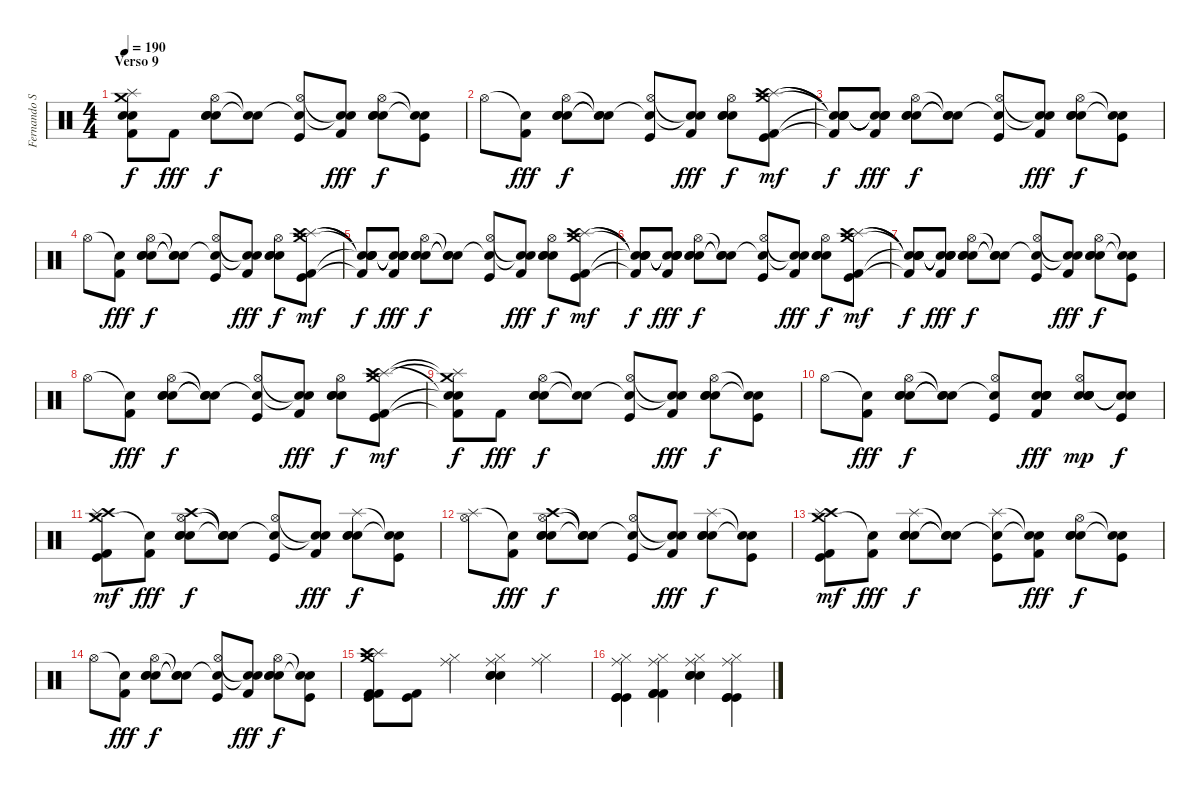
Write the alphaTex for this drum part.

\track ("Fernando Scarcella" "Fernando S") {instrument percussion}
\staff {score}
\articulation defaults
\ts (4 4)
\section ("" "Verso 9")
\tempo 190
\clef neutral
\ks c
("Crash medium (hit)"{t} "Splash (hit)"{t} "Snare (hit)"{t} "Snare (hit)"{t} "Kick (hit) 2"{t}).8{dy f} "Kick (hit) 2".8{dy fff} ("Hi-Hat (open)" "Electric Snare (hit)" "Electric Snare (hit)" "Electric Snare (hit)").8{dy f} ("Snare (hit)"{t} "Snare (hit)"{t}).8 ("Hi-Hat (open)" "Snare (hit)"{t} "Kick (hit)").8 ("Snare (hit)"{t} "Snare (hit)"{t} "Kick (hit) 2").8{dy fff} ("Hi-Hat (open)" "Electric Snare (hit)" "Electric Snare (hit)" "Electric Snare (hit)").8{dy f} ("Snare (hit)"{t} "Snare (hit)"{t} "Kick (hit)").8 |
"Hi-Hat (open)".8 ("Snare (hit)"{t} "Kick (hit) 2").8{dy fff} ("Hi-Hat (open)" "Electric Snare (hit)" "Electric Snare (hit)" "Electric Snare (hit)").8{dy f} ("Snare (hit)"{t} "Snare (hit)"{t} "Snare (hit)"{t}).8 ("Hi-Hat (open)" "Snare (hit)"{t} "Kick (hit)").8 ("Snare (hit)"{t} "Snare (hit)"{t} "Kick (hit) 2").8{dy fff} ("Hi-Hat (open)" "Electric Snare (hit)" "Electric Snare (hit)" "Electric Snare (hit)").8{dy f} ("Crash medium (hit)" "Splash (hit)" "Crash high (hit)" "Kick (hit) 2" "Kick (hit)").8{dy mf} |
("Snare (hit)"{t} "Snare (hit)"{t} "Snare (hit)"{t} "Snare (hit)"{t} "Kick (hit) 2"{t}).8{dy f} ("Snare (hit)"{t} "Snare (hit)"{t} "Snare (hit)"{t} "Snare (hit)"{t} "Kick (hit) 2").8{dy fff} ("Hi-Hat (open)" "Electric Snare (hit)" "Electric Snare (hit)" "Electric Snare (hit)").8{dy f} ("Snare (hit)"{t} "Snare (hit)"{t} "Snare (hit)"{t}).8 ("Hi-Hat (open)" "Snare (hit)"{t} "Kick (hit)").8 ("Snare (hit)"{t} "Snare (hit)"{t} "Kick (hit) 2").8{dy fff} ("Hi-Hat (open)" "Electric Snare (hit)" "Electric Snare (hit)" "Electric Snare (hit)").8{dy f} ("Snare (hit)"{t} "Snare (hit)"{t} "Kick (hit)").8 |
"Hi-Hat (open)".8 ("Snare (hit)"{t} "Kick (hit) 2").8{dy fff} ("Hi-Hat (open)" "Electric Snare (hit)" "Electric Snare (hit)" "Electric Snare (hit)").8{dy f} ("Snare (hit)"{t} "Snare (hit)"{t} "Snare (hit)"{t}).8 ("Hi-Hat (open)" "Snare (hit)"{t} "Kick (hit)").8 ("Snare (hit)"{t} "Snare (hit)"{t} "Kick (hit) 2").8{dy fff} ("Hi-Hat (open)" "Electric Snare (hit)" "Electric Snare (hit)" "Electric Snare (hit)").8{dy f} ("Crash medium (hit)" "Splash (hit)" "Crash high (hit)" "Kick (hit) 2" "Kick (hit)").8{dy mf} |
("Snare (hit)"{t} "Snare (hit)"{t} "Snare (hit)"{t} "Snare (hit)"{t} "Kick (hit) 2"{t}).8{dy f} ("Snare (hit)"{t} "Snare (hit)"{t} "Snare (hit)"{t} "Snare (hit)"{t} "Kick (hit) 2").8{dy fff} ("Hi-Hat (open)" "Electric Snare (hit)" "Electric Snare (hit)" "Electric Snare (hit)").8{dy f} ("Snare (hit)"{t} "Snare (hit)"{t} "Snare (hit)"{t}).8 ("Hi-Hat (open)" "Snare (hit)"{t} "Kick (hit)").8 ("Snare (hit)"{t} "Snare (hit)"{t} "Kick (hit) 2").8{dy fff} ("Hi-Hat (open)" "Electric Snare (hit)" "Electric Snare (hit)" "Electric Snare (hit)").8{dy f} ("Crash medium (hit)" "Splash (hit)" "Crash high (hit)" "Kick (hit) 2" "Kick (hit)").8{dy mf} |
("Snare (hit)"{t} "Snare (hit)"{t} "Snare (hit)"{t} "Snare (hit)"{t} "Kick (hit) 2"{t}).8{dy f} ("Snare (hit)"{t} "Snare (hit)"{t} "Snare (hit)"{t} "Snare (hit)"{t} "Kick (hit) 2").8{dy fff} ("Hi-Hat (open)" "Electric Snare (hit)" "Electric Snare (hit)" "Electric Snare (hit)").8{dy f} ("Snare (hit)"{t} "Snare (hit)"{t} "Snare (hit)"{t}).8 ("Hi-Hat (open)" "Snare (hit)"{t} "Kick (hit)").8 ("Snare (hit)"{t} "Snare (hit)"{t} "Kick (hit) 2").8{dy fff} ("Hi-Hat (open)" "Electric Snare (hit)" "Electric Snare (hit)" "Electric Snare (hit)").8{dy f} ("Crash medium (hit)" "Splash (hit)" "Crash high (hit)" "Kick (hit) 2" "Kick (hit)").8{dy mf} |
("Snare (hit)"{t} "Snare (hit)"{t} "Snare (hit)"{t} "Snare (hit)"{t} "Kick (hit) 2"{t}).8{dy f} ("Snare (hit)"{t} "Snare (hit)"{t} "Snare (hit)"{t} "Snare (hit)"{t} "Kick (hit) 2").8{dy fff} ("Hi-Hat (open)" "Electric Snare (hit)" "Electric Snare (hit)" "Electric Snare (hit)").8{dy f} ("Snare (hit)"{t} "Snare (hit)"{t} "Snare (hit)"{t}).8 ("Hi-Hat (open)" "Snare (hit)"{t} "Kick (hit)").8 ("Snare (hit)"{t} "Snare (hit)"{t} "Kick (hit) 2").8{dy fff} ("Hi-Hat (open)" "Electric Snare (hit)" "Electric Snare (hit)" "Electric Snare (hit)").8{dy f} ("Snare (hit)"{t} "Snare (hit)"{t} "Kick (hit)").8 |
"Hi-Hat (open)".8 ("Snare (hit)"{t} "Kick (hit) 2").8{dy fff} ("Hi-Hat (open)" "Electric Snare (hit)" "Electric Snare (hit)" "Electric Snare (hit)").8{dy f} ("Snare (hit)"{t} "Snare (hit)"{t} "Snare (hit)"{t}).8 ("Hi-Hat (open)" "Snare (hit)"{t} "Kick (hit)").8 ("Snare (hit)"{t} "Snare (hit)"{t} "Kick (hit) 2").8{dy fff} ("Hi-Hat (open)" "Electric Snare (hit)" "Electric Snare (hit)" "Electric Snare (hit)").8{dy f} ("Crash medium (hit)" "Splash (hit)" "Crash high (hit)" "Kick (hit) 2" "Kick (hit)").8{dy mf} |
("Crash medium (hit)"{t} "Splash (hit)"{t} "Snare (hit)"{t} "Snare (hit)"{t} "Kick (hit) 2"{t}).8{dy f} "Kick (hit) 2".8{dy fff} ("Hi-Hat (open)" "Electric Snare (hit)" "Electric Snare (hit)" "Electric Snare (hit)").8{dy f} ("Snare (hit)"{t} "Snare (hit)"{t}).8 ("Hi-Hat (open)" "Snare (hit)"{t} "Kick (hit)").8 ("Snare (hit)"{t} "Snare (hit)"{t} "Kick (hit) 2").8{dy fff} ("Hi-Hat (open)" "Electric Snare (hit)" "Electric Snare (hit)" "Electric Snare (hit)").8{dy f} ("Snare (hit)"{t} "Snare (hit)"{t} "Kick (hit)").8 |
"Hi-Hat (open)".8 ("Snare (hit)"{t} "Kick (hit) 2").8{dy fff} ("Hi-Hat (open)" "Electric Snare (hit)" "Electric Snare (hit)" "Electric Snare (hit)").8{dy f} ("Snare (hit)"{t} "Snare (hit)"{t} "Snare (hit)"{t}).8 ("Hi-Hat (open)" "Snare (hit)"{t} "Kick (hit)").8 ("Electric Snare (hit)" "Electric Snare (hit)" "Electric Snare (hit)" "Snare (hit) 2" "Kick (hit) 2").8{dy fff} ("Electric Snare (hit)" "Electric Snare (hit)" "Hi-Hat (open)" "Electric Snare (hit)" "Snare (hit) 2" "Snare (hit)").8{dy mp} ("Snare (hit)"{t} "Snare (hit)"{t} "Kick (hit)").8{dy f} |
("Crash medium (hit)" "Crash high (hit)" "Splash (hit)" "Kick (hit) 2" "Kick (hit)").8{dy mf} ("Snare (hit)"{t} "Kick (hit) 2").8{dy fff} ("Crash high (hit)" "Hi-Hat (open)" "Electric Snare (hit)" "Electric Snare (hit)" "Electric Snare (hit)").8{dy f} ("Snare (hit)"{t} "Snare (hit)"{t} "Snare (hit)"{t}).8 ("Hi-Hat (open)" "Snare (hit)"{t} "Kick (hit)").8 ("Snare (hit)"{t} "Snare (hit)"{t} "Kick (hit) 2").8{dy fff} ("Splash (hit)" "Electric Snare (hit)" "Electric Snare (hit)" "Electric Snare (hit)").8{dy f} ("Snare (hit)"{t} "Snare (hit)"{t} "Kick (hit)").8 |
("Splash (hit)" "Hi-Hat (open)").8 ("Snare (hit)"{t} "Kick (hit) 2").8{dy fff} ("Crash high (hit)" "Hi-Hat (open)" "Electric Snare (hit)" "Electric Snare (hit)" "Electric Snare (hit)").8{dy f} ("Snare (hit)"{t} "Snare (hit)"{t} "Snare (hit)"{t}).8 ("Hi-Hat (open)" "Snare (hit)"{t} "Kick (hit)").8 ("Snare (hit)"{t} "Snare (hit)"{t} "Kick (hit) 2").8{dy fff} ("Splash (hit)" "Electric Snare (hit)" "Electric Snare (hit)" "Electric Snare (hit)").8{dy f} ("Snare (hit)"{t} "Snare (hit)"{t} "Kick (hit)").8 |
("Crash medium (hit)" "Crash high (hit)" "Splash (hit)" "Kick (hit) 2" "Kick (hit)").8{dy mf} ("Snare (hit)"{t} "Kick (hit) 2").8{dy fff} ("Splash (hit)" "Electric Snare (hit)" "Electric Snare (hit)" "Electric Snare (hit)").8{dy f} ("Snare (hit)"{t} "Snare (hit)"{t} "Snare (hit)"{t}).8 ("Splash (hit)" "Snare (hit)"{t} "Kick (hit)").8 ("Snare (hit)"{t} "Snare (hit)"{t} "Kick (hit) 2").8{dy fff} ("Hi-Hat (open)" "Electric Snare (hit)" "Electric Snare (hit)" "Electric Snare (hit)").8{dy f} ("Snare (hit)"{t} "Snare (hit)"{t} "Kick (hit)").8 |
"Hi-Hat (open)".8 ("Snare (hit)"{t} "Kick (hit) 2").8{dy fff} ("Hi-Hat (open)" "Electric Snare (hit)" "Electric Snare (hit)" "Electric Snare (hit)").8{dy f} ("Snare (hit)"{t} "Snare (hit)"{t} "Snare (hit)"{t}).8 ("Hi-Hat (open)" "Snare (hit)"{t} "Kick (hit)").8 ("Snare (hit)"{t} "Snare (hit)"{t} "Kick (hit) 2").8{dy fff} ("Hi-Hat (open)" "Electric Snare (hit)" "Electric Snare (hit)" "Electric Snare (hit)").8{dy f} ("Snare (hit)"{t} "Snare (hit)"{t} "Kick (hit)").8 |
("Crash medium (hit)" "Splash (hit)" "Crash high (hit)" "Kick (hit)" "Kick (hit) 2" "Kick (hit) 2").8 ("Kick (hit)" "Kick (hit) 2").8 ("Ride (middle)" "Hi-Hat (closed)").4 ("Ride (middle)" "Hi-Hat (closed)" "Electric Snare (hit)" "Electric Snare (hit)" "Electric Snare (hit)").4 ("Ride (middle)" "Hi-Hat (closed)").4 |
("Hi-Hat (closed)" "Ride (middle)" "Kick (hit)" "Kick (hit)" "Kick (hit)").4 ("Hi-Hat (closed)" "Ride (middle)" "Kick (hit) 2" "Kick (hit) 2" "Kick (hit) 2").4 ("Ride (middle)" "Hi-Hat (closed)" "Electric Snare (hit)" "Electric Snare (hit)" "Electric Snare (hit)").4 ("Hi-Hat (closed)" "Ride (middle)" "Kick (hit)" "Kick (hit)" "Kick (hit)").4
